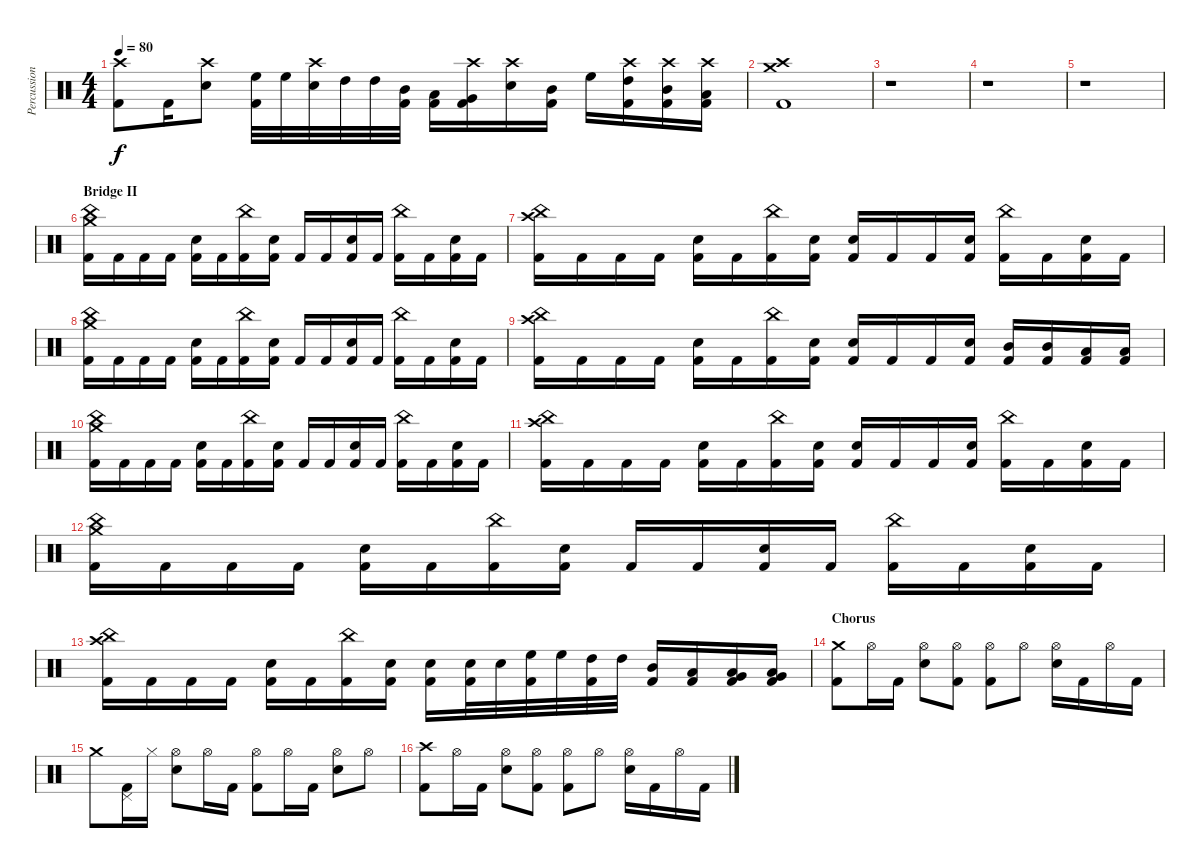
\track ("Percussion" "Percussion") {instrument percussion}
\staff {score}
\articulation defaults
\ts (4 4)
\tempo 80
\clef neutral
\ks c
("Crash high (hit)" "Kick (hit) 2").8{dy f} "Kick (hit) 2".16 ("Crash high (hit)" "Electric Snare (hit)").8 ("High Floor Tom (hit)" "Kick (hit) 2").32 "High Floor Tom (hit)".32 ("Crash high (hit)" "Electric Snare (hit)").32 "High Tom (hit)".32 "High Tom (hit)".32 ("Mid Tom (hit)" "Kick (hit) 2").32 ("Low Tom (hit)" "Kick (hit) 2").16 ("Crash high (hit)" "Very Low Tom (hit)" "Kick (hit) 2").16 ("Crash high (hit)" "Electric Snare (hit)").16 ("Mid Tom (hit)" "Kick (hit) 2").16 "High Floor Tom (hit)".16 ("Crash high (hit)" "High Tom (hit)" "Kick (hit) 2").16 ("Crash high (hit)" "Mid Tom (hit)" "Kick (hit) 2").16 ("Crash high (hit)" "Low Tom (hit)" "Kick (hit) 2").16 |
("Crash medium (hit)" "Crash high (hit)" "Kick (hit) 2").1 |
r.1 |
r.1 |
r.1 |
\section ("" "Bridge II")
("China (hit)" "Crash medium (hit)" "Kick (hit) 2").16 "Kick (hit) 2".16 "Kick (hit) 2".16 "Kick (hit) 2".16 ("Electric Snare (hit)" "Kick (hit) 2").16 "Kick (hit) 2".16 ("China (hit)" "Kick (hit) 2").16 ("Electric Snare (hit)" "Kick (hit) 2").16 "Kick (hit) 2".16 "Kick (hit) 2".16 ("Electric Snare (hit)" "Kick (hit) 2").16 "Kick (hit) 2".16 ("China (hit)" "Kick (hit) 2").16 "Kick (hit) 2".16 ("Electric Snare (hit)" "Kick (hit) 2").16 "Kick (hit) 2".16 |
("China (hit)" "Crash high (hit)" "Kick (hit) 2").16 "Kick (hit) 2".16 "Kick (hit) 2".16 "Kick (hit) 2".16 ("Electric Snare (hit)" "Kick (hit) 2").16 "Kick (hit) 2".16 ("China (hit)" "Kick (hit) 2").16 ("Electric Snare (hit)" "Kick (hit) 2").16 ("Electric Snare (hit)" "Kick (hit) 2").16 "Kick (hit) 2".16 "Kick (hit) 2".16 ("Electric Snare (hit)" "Kick (hit) 2").16 ("China (hit)" "Kick (hit) 2").16 "Kick (hit) 2".16 ("Electric Snare (hit)" "Kick (hit) 2").16 "Kick (hit) 2".16 |
("China (hit)" "Crash medium (hit)" "Kick (hit) 2").16 "Kick (hit) 2".16 "Kick (hit) 2".16 "Kick (hit) 2".16 ("Electric Snare (hit)" "Kick (hit) 2").16 "Kick (hit) 2".16 ("China (hit)" "Kick (hit) 2").16 ("Electric Snare (hit)" "Kick (hit) 2").16 "Kick (hit) 2".16 "Kick (hit) 2".16 ("Electric Snare (hit)" "Kick (hit) 2").16 "Kick (hit) 2".16 ("China (hit)" "Kick (hit) 2").16 "Kick (hit) 2".16 ("Electric Snare (hit)" "Kick (hit) 2").16 "Kick (hit) 2".16 |
("China (hit)" "Crash high (hit)" "Kick (hit) 2").16 "Kick (hit) 2".16 "Kick (hit) 2".16 "Kick (hit) 2".16 ("Electric Snare (hit)" "Kick (hit) 2").16 "Kick (hit) 2".16 ("China (hit)" "Kick (hit) 2").16 ("Electric Snare (hit)" "Kick (hit) 2").16 ("Electric Snare (hit)" "Kick (hit) 2").16 "Kick (hit) 2".16 "Kick (hit) 2".16 ("Electric Snare (hit)" "Kick (hit) 2").16 ("Mid Tom (hit)" "Kick (hit) 2").16 ("Mid Tom (hit)" "Kick (hit) 2").16 ("Low Tom (hit)" "Kick (hit) 2").16 ("Low Tom (hit)" "Kick (hit) 2").16 |
("China (hit)" "Crash medium (hit)" "Kick (hit) 2").16 "Kick (hit) 2".16 "Kick (hit) 2".16 "Kick (hit) 2".16 ("Electric Snare (hit)" "Kick (hit) 2").16 "Kick (hit) 2".16 ("China (hit)" "Kick (hit) 2").16 ("Electric Snare (hit)" "Kick (hit) 2").16 "Kick (hit) 2".16 "Kick (hit) 2".16 ("Electric Snare (hit)" "Kick (hit) 2").16 "Kick (hit) 2".16 ("China (hit)" "Kick (hit) 2").16 "Kick (hit) 2".16 ("Electric Snare (hit)" "Kick (hit) 2").16 "Kick (hit) 2".16 |
("China (hit)" "Crash high (hit)" "Kick (hit) 2").16 "Kick (hit) 2".16 "Kick (hit) 2".16 "Kick (hit) 2".16 ("Electric Snare (hit)" "Kick (hit) 2").16 "Kick (hit) 2".16 ("China (hit)" "Kick (hit) 2").16 ("Electric Snare (hit)" "Kick (hit) 2").16 ("Electric Snare (hit)" "Kick (hit) 2").16 "Kick (hit) 2".16 "Kick (hit) 2".16 ("Electric Snare (hit)" "Kick (hit) 2").16 ("China (hit)" "Kick (hit) 2").16 "Kick (hit) 2".16 ("Electric Snare (hit)" "Kick (hit) 2").16 "Kick (hit) 2".16 |
("China (hit)" "Crash medium (hit)" "Kick (hit) 2").16 "Kick (hit) 2".16 "Kick (hit) 2".16 "Kick (hit) 2".16 ("Electric Snare (hit)" "Kick (hit) 2").16 "Kick (hit) 2".16 ("China (hit)" "Kick (hit) 2").16 ("Electric Snare (hit)" "Kick (hit) 2").16 "Kick (hit) 2".16 "Kick (hit) 2".16 ("Electric Snare (hit)" "Kick (hit) 2").16 "Kick (hit) 2".16 ("China (hit)" "Kick (hit) 2").16 "Kick (hit) 2".16 ("Electric Snare (hit)" "Kick (hit) 2").16 "Kick (hit) 2".16 |
("China (hit)" "Crash high (hit)" "Kick (hit) 2").16 "Kick (hit) 2".16 "Kick (hit) 2".16 "Kick (hit) 2".16 ("Electric Snare (hit)" "Kick (hit) 2").16 "Kick (hit) 2".16 ("China (hit)" "Kick (hit) 2").16 ("Electric Snare (hit)" "Kick (hit) 2").16 ("Electric Snare (hit)" "Kick (hit) 2").16 ("Electric Snare (hit)" "Kick (hit) 2").32 "Electric Snare (hit)".32 ("High Floor Tom (hit)" "Kick (hit) 2").32 "High Floor Tom (hit)".32 ("High Tom (hit)" "Kick (hit) 2").32 "High Tom (hit)".32 ("Mid Tom (hit)" "Kick (hit) 2").16 ("Low Tom (hit)" "Kick (hit) 2").16 ("Low Tom (hit)" "Very Low Tom (hit)" "Kick (hit) 2").16 ("Very Low Tom (hit)" "Low Floor Tom (hit)" "Kick (hit) 2").16 |
\section ("" "Chorus")
("Crash medium (hit)" "Kick (hit) 2").8 "Hi-Hat (open)".16 "Kick (hit) 2".16 ("Hi-Hat (open)" "Electric Snare (hit)").8 ("Hi-Hat (open)" "Kick (hit) 2").8 ("Hi-Hat (open)" "Kick (hit) 2").8 "Hi-Hat (open)".8 ("Hi-Hat (open)" "Electric Snare (hit)").16 "Kick (hit) 2".16 "Hi-Hat (open)".16 "Kick (hit) 2".16 |
"Crash medium (hit)".8 ("Pedal Hi-Hat (hit)" "Kick (hit) 2").16 "Hi-Hat (closed)".16 ("Hi-Hat (open)" "Electric Snare (hit)").8 "Hi-Hat (open)".16 "Kick (hit) 2".16 ("Hi-Hat (open)" "Kick (hit) 2").8 "Hi-Hat (open)".16 "Kick (hit) 2".16 ("Hi-Hat (open)" "Electric Snare (hit)").8 "Hi-Hat (open)".8 |
("Crash high (hit)" "Kick (hit) 2").8 "Hi-Hat (open)".16 "Kick (hit) 2".16 ("Hi-Hat (open)" "Electric Snare (hit)").8 ("Hi-Hat (open)" "Kick (hit) 2").8 ("Hi-Hat (open)" "Kick (hit) 2").8 "Hi-Hat (open)".8 ("Hi-Hat (open)" "Electric Snare (hit)").16 "Kick (hit) 2".16 "Hi-Hat (open)".16 "Kick (hit) 2".16
